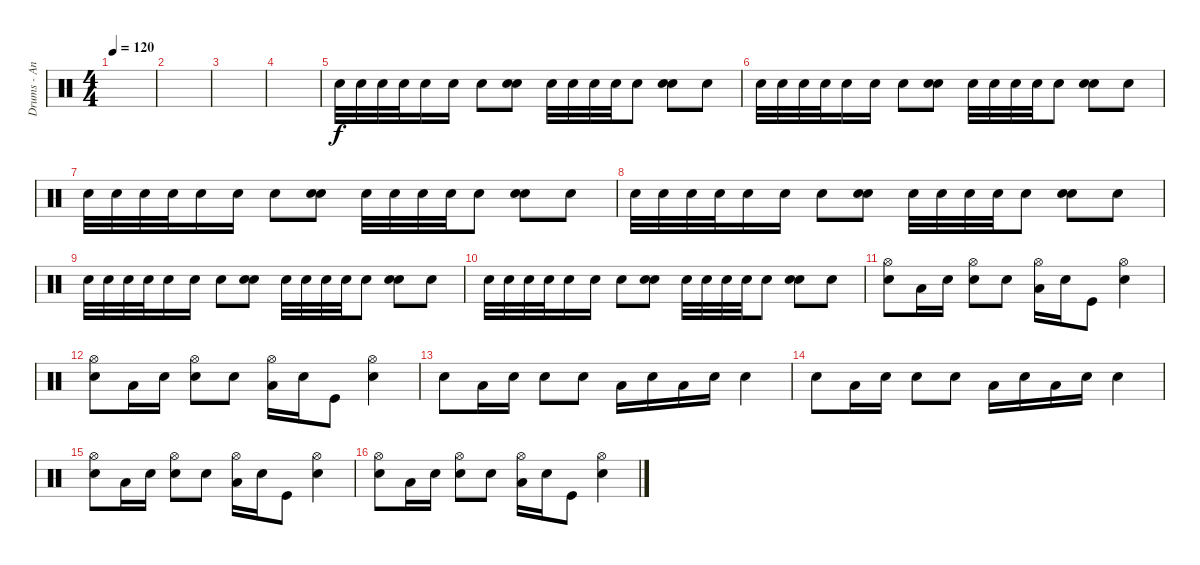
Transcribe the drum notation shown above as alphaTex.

\track ("Drums - Andrew" "Drums - An") {instrument percussion}
\staff {score}
\articulation defaults
\ts (4 4)
\tempo 120
\clef neutral
\ks c
|
|
|
|
"Electric Snare (hit)".32 "Electric Snare (hit)".32 "Electric Snare (hit)".32 "Electric Snare (hit)".32 "Electric Snare (hit)".16 "Electric Snare (hit)".16 "Electric Snare (hit)".8 ("Electric Snare (hit)" "Electric Snare (hit)").8 "Electric Snare (hit)".32 "Electric Snare (hit)".32 "Electric Snare (hit)".32 "Electric Snare (hit)".32 "Electric Snare (hit)".8 ("Electric Snare (hit)" "Electric Snare (hit)").8 "Electric Snare (hit)".8 |
"Electric Snare (hit)".32 "Electric Snare (hit)".32 "Electric Snare (hit)".32 "Electric Snare (hit)".32 "Electric Snare (hit)".16 "Electric Snare (hit)".16 "Electric Snare (hit)".8 ("Electric Snare (hit)" "Electric Snare (hit)").8 "Electric Snare (hit)".32 "Electric Snare (hit)".32 "Electric Snare (hit)".32 "Electric Snare (hit)".32 "Electric Snare (hit)".8 ("Electric Snare (hit)" "Electric Snare (hit)").8 "Electric Snare (hit)".8 |
"Electric Snare (hit)".32 "Electric Snare (hit)".32 "Electric Snare (hit)".32 "Electric Snare (hit)".32 "Electric Snare (hit)".16 "Electric Snare (hit)".16 "Electric Snare (hit)".8 ("Electric Snare (hit)" "Electric Snare (hit)").8 "Electric Snare (hit)".32 "Electric Snare (hit)".32 "Electric Snare (hit)".32 "Electric Snare (hit)".32 "Electric Snare (hit)".8 ("Electric Snare (hit)" "Electric Snare (hit)").8 "Electric Snare (hit)".8 |
"Electric Snare (hit)".32 "Electric Snare (hit)".32 "Electric Snare (hit)".32 "Electric Snare (hit)".32 "Electric Snare (hit)".16 "Electric Snare (hit)".16 "Electric Snare (hit)".8 ("Electric Snare (hit)" "Electric Snare (hit)").8 "Electric Snare (hit)".32 "Electric Snare (hit)".32 "Electric Snare (hit)".32 "Electric Snare (hit)".32 "Electric Snare (hit)".8 ("Electric Snare (hit)" "Electric Snare (hit)").8 "Electric Snare (hit)".8 |
"Electric Snare (hit)".32 "Electric Snare (hit)".32 "Electric Snare (hit)".32 "Electric Snare (hit)".32 "Electric Snare (hit)".16 "Electric Snare (hit)".16 "Electric Snare (hit)".8 ("Electric Snare (hit)" "Electric Snare (hit)").8 "Electric Snare (hit)".32 "Electric Snare (hit)".32 "Electric Snare (hit)".32 "Electric Snare (hit)".32 "Electric Snare (hit)".8 ("Electric Snare (hit)" "Electric Snare (hit)").8 "Electric Snare (hit)".8 |
"Electric Snare (hit)".32 "Electric Snare (hit)".32 "Electric Snare (hit)".32 "Electric Snare (hit)".32 "Electric Snare (hit)".16 "Electric Snare (hit)".16 "Electric Snare (hit)".8 ("Electric Snare (hit)" "Electric Snare (hit)").8 "Electric Snare (hit)".32 "Electric Snare (hit)".32 "Electric Snare (hit)".32 "Electric Snare (hit)".32 "Electric Snare (hit)".8 ("Electric Snare (hit)" "Electric Snare (hit)").8 "Electric Snare (hit)".8 |
("Hi-Hat (open)" "Electric Snare (hit)").8 "Low Tom (hit)".16 "Electric Snare (hit)".16 ("Hi-Hat (open)" "Electric Snare (hit)").8 "Electric Snare (hit)".8 ("Hi-Hat (open)" "Low Tom (hit)").16 "Electric Snare (hit)".16 "Kick (hit)".8 ("Hi-Hat (open)" "Electric Snare (hit)").4 |
("Hi-Hat (open)" "Electric Snare (hit)").8 "Low Tom (hit)".16 "Electric Snare (hit)".16 ("Hi-Hat (open)" "Electric Snare (hit)").8 "Electric Snare (hit)".8 ("Hi-Hat (open)" "Low Tom (hit)").16 "Electric Snare (hit)".16 "Kick (hit)".8 ("Hi-Hat (open)" "Electric Snare (hit)").4 |
"Electric Snare (hit)".8 "Low Tom (hit)".16 "Electric Snare (hit)".16 "Electric Snare (hit)".8 "Electric Snare (hit)".8 "Low Tom (hit)".16 "Electric Snare (hit)".16 "Low Tom (hit)".16 "Electric Snare (hit)".16 "Electric Snare (hit)".4 |
"Electric Snare (hit)".8 "Low Tom (hit)".16 "Electric Snare (hit)".16 "Electric Snare (hit)".8 "Electric Snare (hit)".8 "Low Tom (hit)".16 "Electric Snare (hit)".16 "Low Tom (hit)".16 "Electric Snare (hit)".16 "Electric Snare (hit)".4 |
("Hi-Hat (open)" "Electric Snare (hit)").8 "Low Tom (hit)".16 "Electric Snare (hit)".16 ("Hi-Hat (open)" "Electric Snare (hit)").8 "Electric Snare (hit)".8 ("Hi-Hat (open)" "Low Tom (hit)").16 "Electric Snare (hit)".16 "Kick (hit)".8 ("Hi-Hat (open)" "Electric Snare (hit)").4 |
("Hi-Hat (open)" "Electric Snare (hit)").8 "Low Tom (hit)".16 "Electric Snare (hit)".16 ("Hi-Hat (open)" "Electric Snare (hit)").8 "Electric Snare (hit)".8 ("Hi-Hat (open)" "Low Tom (hit)").16 "Electric Snare (hit)".16 "Kick (hit)".8 ("Hi-Hat (open)" "Electric Snare (hit)").4
